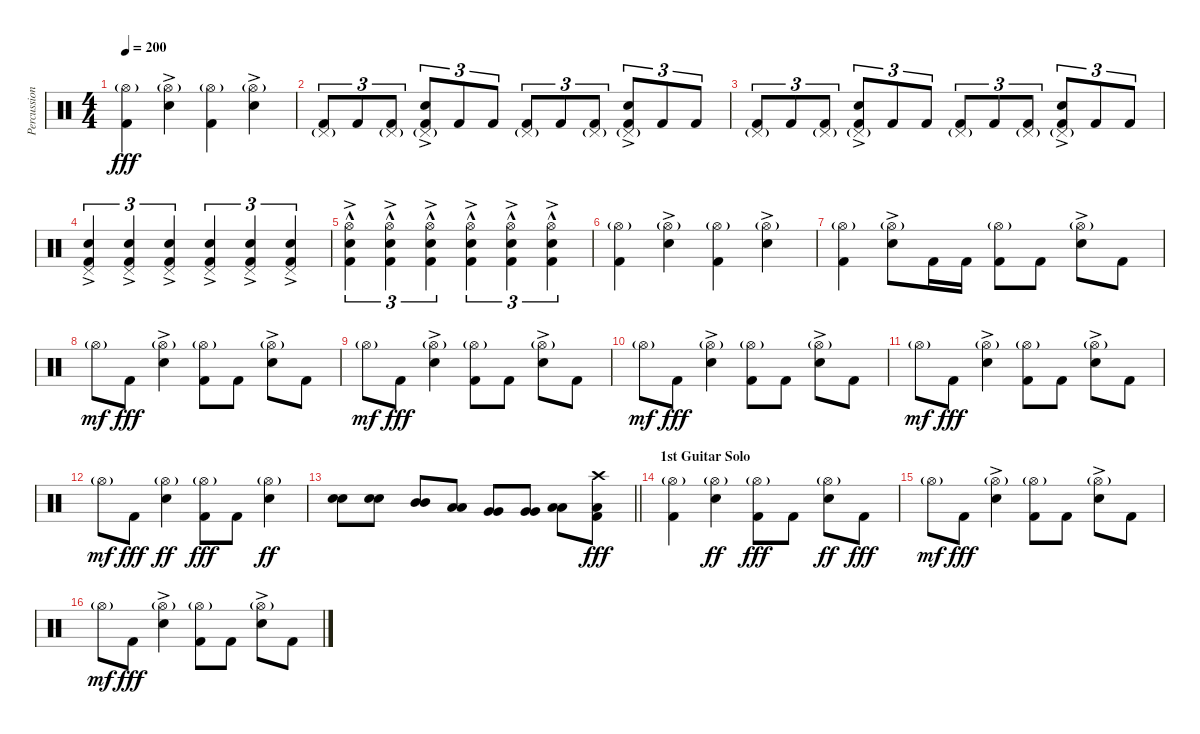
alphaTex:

\track ("Percussion , Drums - Travis Smith" "Percussion") {instrument percussion}
\staff {score}
\articulation defaults
\ts (4 4)
\tempo 200
\clef neutral
\ks c
("Hi-Hat (open)"{g} "Kick (hit) 2").4{dy fff} ("Hi-Hat (open)"{g} "Electric Snare (hit)"{ac}).4 ("Hi-Hat (open)"{g} "Kick (hit) 2").4 ("Hi-Hat (open)"{g} "Electric Snare (hit)"{ac}).4 |
("Pedal Hi-Hat (hit)"{g} "Kick (hit) 2").8{tu (3 2)} "Kick (hit) 2".8{tu (3 2)} ("Pedal Hi-Hat (hit)"{g} "Kick (hit) 2").8{tu (3 2)} ("Pedal Hi-Hat (hit)"{g} "Electric Snare (hit)"{ac} "Kick (hit) 2").8{tu (3 2)} "Kick (hit) 2".8{tu (3 2)} "Kick (hit) 2".8{tu (3 2)} ("Pedal Hi-Hat (hit)"{g} "Kick (hit) 2").8{tu (3 2)} "Kick (hit) 2".8{tu (3 2)} ("Pedal Hi-Hat (hit)"{g} "Kick (hit) 2").8{tu (3 2)} ("Pedal Hi-Hat (hit)"{g} "Electric Snare (hit)"{ac} "Kick (hit) 2").8{tu (3 2)} "Kick (hit) 2".8{tu (3 2)} "Kick (hit) 2".8{tu (3 2)} |
("Pedal Hi-Hat (hit)"{g} "Kick (hit) 2").8{tu (3 2)} "Kick (hit) 2".8{tu (3 2)} ("Pedal Hi-Hat (hit)"{g} "Kick (hit) 2").8{tu (3 2)} ("Pedal Hi-Hat (hit)"{g} "Electric Snare (hit)"{ac} "Kick (hit) 2").8{tu (3 2)} "Kick (hit) 2".8{tu (3 2)} "Kick (hit) 2".8{tu (3 2)} ("Pedal Hi-Hat (hit)"{g} "Kick (hit) 2").8{tu (3 2)} "Kick (hit) 2".8{tu (3 2)} ("Pedal Hi-Hat (hit)"{g} "Kick (hit) 2").8{tu (3 2)} ("Pedal Hi-Hat (hit)"{g} "Electric Snare (hit)"{ac} "Kick (hit) 2").8{tu (3 2)} "Kick (hit) 2".8{tu (3 2)} "Kick (hit) 2".8{tu (3 2)} |
("Pedal Hi-Hat (hit)" "Electric Snare (hit)" "Kick (hit) 2"{ac}).4{tu (3 2)} ("Pedal Hi-Hat (hit)" "Electric Snare (hit)" "Kick (hit) 2"{ac}).4{tu (3 2)} ("Pedal Hi-Hat (hit)" "Electric Snare (hit)" "Kick (hit) 2"{ac}).4{tu (3 2)} ("Pedal Hi-Hat (hit)" "Electric Snare (hit)" "Kick (hit) 2"{ac}).4{tu (3 2)} ("Pedal Hi-Hat (hit)" "Electric Snare (hit)" "Kick (hit) 2"{ac}).4{tu (3 2)} ("Pedal Hi-Hat (hit)" "Electric Snare (hit)" "Kick (hit) 2"{ac}).4{tu (3 2)} |
("Hi-Hat (open)"{hac} "Electric Snare (hit)"{hac} "Kick (hit) 2"{ac}).4{tu (3 2)} ("Hi-Hat (open)"{hac} "Electric Snare (hit)"{hac} "Kick (hit) 2"{ac}).4{tu (3 2)} ("Hi-Hat (open)"{hac} "Electric Snare (hit)"{hac} "Kick (hit) 2"{ac}).4{tu (3 2)} ("Hi-Hat (open)"{hac} "Electric Snare (hit)"{hac} "Kick (hit) 2"{ac}).4{tu (3 2)} ("Hi-Hat (open)"{hac} "Electric Snare (hit)"{hac} "Kick (hit) 2"{ac}).4{tu (3 2)} ("Hi-Hat (open)"{hac} "Electric Snare (hit)"{hac} "Kick (hit) 2"{ac}).4{tu (3 2)} |
("Hi-Hat (open)"{g} "Kick (hit) 2").4 ("Hi-Hat (open)"{g} "Electric Snare (hit)"{ac}).4 ("Hi-Hat (open)"{g} "Kick (hit) 2").4 ("Hi-Hat (open)"{g} "Electric Snare (hit)"{ac}).4 |
("Hi-Hat (open)"{g} "Kick (hit) 2").4 ("Hi-Hat (open)"{g} "Electric Snare (hit)"{ac}).8 "Kick (hit) 2".16 "Kick (hit) 2".16 ("Hi-Hat (open)"{g} "Kick (hit) 2").8 "Kick (hit) 2".8 ("Hi-Hat (open)"{g} "Electric Snare (hit)"{ac}).8 "Kick (hit) 2".8 |
"Hi-Hat (open)"{g}.8{dy mf} "Kick (hit) 2".8{dy fff} ("Hi-Hat (open)"{g} "Electric Snare (hit)"{ac}).4 ("Hi-Hat (open)"{g} "Kick (hit) 2").8 "Kick (hit) 2".8 ("Hi-Hat (open)"{g} "Electric Snare (hit)"{ac}).8 "Kick (hit) 2".8 |
"Hi-Hat (open)"{g}.8{dy mf} "Kick (hit) 2".8{dy fff} ("Hi-Hat (open)"{g} "Electric Snare (hit)"{ac}).4 ("Hi-Hat (open)"{g} "Kick (hit) 2").8 "Kick (hit) 2".8 ("Hi-Hat (open)"{g} "Electric Snare (hit)"{ac}).8 "Kick (hit) 2".8 |
"Hi-Hat (open)"{g}.8{dy mf} "Kick (hit) 2".8{dy fff} ("Hi-Hat (open)"{g} "Electric Snare (hit)"{ac}).4 ("Hi-Hat (open)"{g} "Kick (hit) 2").8 "Kick (hit) 2".8 ("Hi-Hat (open)"{g} "Electric Snare (hit)"{ac}).8 "Kick (hit) 2".8 |
"Hi-Hat (open)"{g}.8{dy mf} "Kick (hit) 2".8{dy fff} ("Hi-Hat (open)"{g} "Electric Snare (hit)"{ac}).4 ("Hi-Hat (open)"{g} "Kick (hit) 2").8 "Kick (hit) 2".8 ("Hi-Hat (open)"{g} "Electric Snare (hit)"{ac}).8 "Kick (hit) 2".8 |
"Hi-Hat (open)"{g}.8{dy mf} "Kick (hit) 2".8{dy fff} ("Hi-Hat (open)"{g} "Electric Snare (hit)").4{dy ff} ("Hi-Hat (open)"{g} "Kick (hit) 2").8{dy fff} "Kick (hit) 2".8 ("Hi-Hat (open)"{g} "Electric Snare (hit)").4{dy ff} |
\barLineRight lightlight
("Electric Snare (hit)" "Electric Snare (hit)").8 ("Electric Snare (hit)" "Electric Snare (hit)").8 ("Mid Tom (hit)" "Mid Tom (hit)").8 ("Low Tom (hit)" "Low Tom (hit)").8 ("Very Low Tom (hit)" "Very Low Tom (hit)").8 ("Very Low Tom (hit)" "Very Low Tom (hit)").8 ("Low Floor Tom (hit)" "Low Floor Tom (hit)").8 ("Crash high (hit)" "Low Floor Tom (hit)" "Kick (hit) 2").8{dy fff} |
\section ("" "1st Guitar Solo")
("Hi-Hat (open)"{g} "Kick (hit) 2").4 ("Hi-Hat (open)"{g} "Electric Snare (hit)").4{dy ff} ("Hi-Hat (open)"{g} "Kick (hit) 2").8{dy fff} "Kick (hit) 2".8 ("Hi-Hat (open)"{g} "Electric Snare (hit)").8{dy ff} "Kick (hit) 2".8{dy fff} |
"Hi-Hat (open)"{g}.8{dy mf} "Kick (hit) 2".8{dy fff} ("Hi-Hat (open)"{g} "Electric Snare (hit)"{ac}).4 ("Hi-Hat (open)"{g} "Kick (hit) 2").8 "Kick (hit) 2".8 ("Hi-Hat (open)"{g} "Electric Snare (hit)"{ac}).8 "Kick (hit) 2".8 |
"Hi-Hat (open)"{g}.8{dy mf} "Kick (hit) 2".8{dy fff} ("Hi-Hat (open)"{g} "Electric Snare (hit)"{ac}).4 ("Hi-Hat (open)"{g} "Kick (hit) 2").8 "Kick (hit) 2".8 ("Hi-Hat (open)"{g} "Electric Snare (hit)"{ac}).8 "Kick (hit) 2".8
